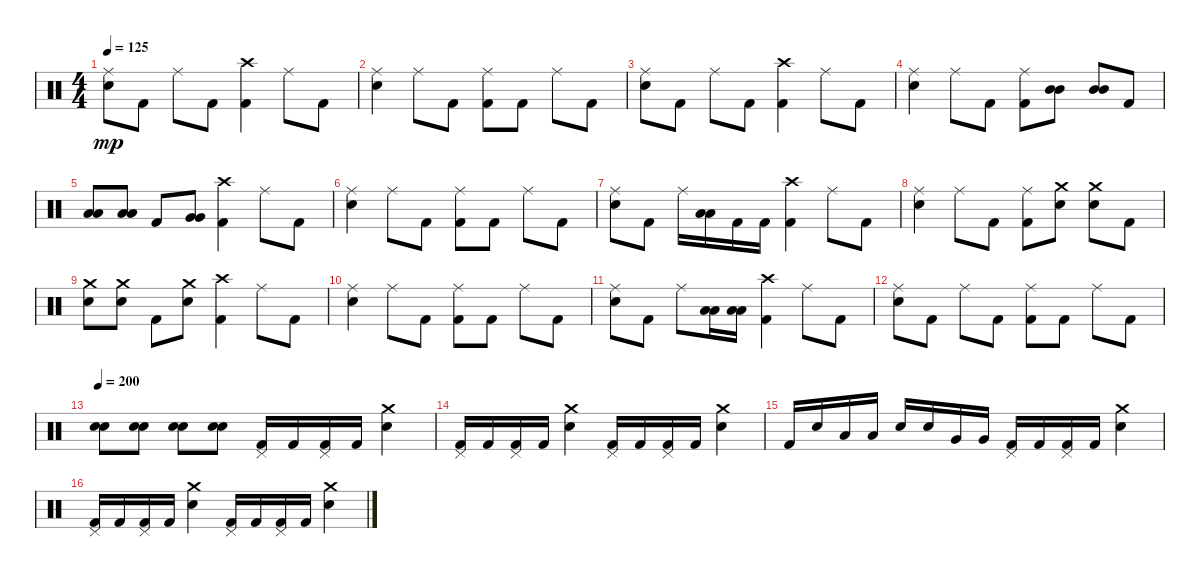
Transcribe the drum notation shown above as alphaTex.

\track "" {instrument percussion}
\staff {score}
\articulation defaults
\ts (4 4)
\tempo 125
\clef neutral
\ks c
("Electric Snare (hit)" "Ride (middle)").8{dy mp} "Kick (hit) 2".8 "Ride (middle)".8 "Kick (hit) 2".8 ("Kick (hit) 2" "Crash high (hit)").4 "Ride (middle)".8 "Kick (hit) 2".8 |
("Electric Snare (hit)" "Ride (middle)").4 "Ride (middle)".8 "Kick (hit) 2".8 ("Kick (hit) 2" "Ride (middle)").8 "Kick (hit) 2".8 "Ride (middle)".8 "Kick (hit) 2".8 |
("Electric Snare (hit)" "Ride (middle)").8 "Kick (hit) 2".8 "Ride (middle)".8 "Kick (hit) 2".8 ("Kick (hit) 2" "Crash high (hit)").4 "Ride (middle)".8 "Kick (hit) 2".8 |
("Electric Snare (hit)" "Ride (middle)").4 "Ride (middle)".8 "Kick (hit) 2".8 ("Kick (hit) 2" "Ride (middle)").8 ("Mid Tom (hit)" "Mid Tom (hit)").8 ("Mid Tom (hit)" "Mid Tom (hit)").8 "Kick (hit) 2".8 |
("Low Tom (hit)" "Low Tom (hit)").8 ("Low Tom (hit)" "Low Tom (hit)").8 "Kick (hit) 2".8 ("Very Low Tom (hit)" "Very Low Tom (hit)").8 ("Kick (hit) 2" "Crash high (hit)").4 "Ride (middle)".8 "Kick (hit) 2".8 |
("Electric Snare (hit)" "Ride (middle)").4 "Ride (middle)".8 "Kick (hit) 2".8 ("Kick (hit) 2" "Ride (middle)").8 "Kick (hit) 2".8 "Ride (middle)".8 "Kick (hit) 2".8 |
("Electric Snare (hit)" "Ride (middle)").8 "Kick (hit) 2".8 "Ride (middle)".16 ("Low Tom (hit)" "Low Tom (hit)").16 "Kick (hit) 2".16 "Kick (hit) 2".16 ("Kick (hit) 2" "Crash high (hit)").4 "Ride (middle)".8 "Kick (hit) 2".8 |
("Electric Snare (hit)" "Ride (middle)").4 "Ride (middle)".8 "Kick (hit) 2".8 ("Kick (hit) 2" "Ride (middle)").8 ("Electric Snare (hit)" "Crash medium (hit)").8 ("Electric Snare (hit)" "Crash medium (hit)").8 "Kick (hit) 2".8 |
("Electric Snare (hit)" "Crash medium (hit)").8 ("Electric Snare (hit)" "Crash medium (hit)").8 "Kick (hit) 2".8 ("Electric Snare (hit)" "Crash medium (hit)").8 ("Kick (hit) 2" "Crash high (hit)").4 "Ride (middle)".8 "Kick (hit) 2".8 |
("Electric Snare (hit)" "Ride (middle)").4 "Ride (middle)".8 "Kick (hit) 2".8 ("Kick (hit) 2" "Ride (middle)").8 "Kick (hit) 2".8 "Ride (middle)".8 "Kick (hit) 2".8 |
("Electric Snare (hit)" "Ride (middle)").8 "Kick (hit) 2".8 "Ride (middle)".8 ("Low Tom (hit)" "Low Tom (hit)").16 ("Low Tom (hit)" "Low Tom (hit)").16 ("Kick (hit) 2" "Crash high (hit)").4 "Ride (middle)".8 "Kick (hit) 2".8 |
("Electric Snare (hit)" "Ride (middle)").8 "Kick (hit) 2".8 "Ride (middle)".8 "Kick (hit) 2".8 ("Kick (hit) 2" "Ride (middle)").8 "Kick (hit) 2".8 "Ride (middle)".8 "Kick (hit) 2".8 |
\tempo 200
("Electric Snare (hit)" "Electric Snare (hit)").8 ("Electric Snare (hit)" "Electric Snare (hit)").8 ("Electric Snare (hit)" "Electric Snare (hit)").8 ("Electric Snare (hit)" "Electric Snare (hit)").8 ("Kick (hit) 2" "Pedal Hi-Hat (hit)").16 "Kick (hit) 2".16 ("Kick (hit) 2" "Pedal Hi-Hat (hit)").16 "Kick (hit) 2".16 ("Electric Snare (hit)" "Crash medium (hit)").4 |
("Kick (hit) 2" "Pedal Hi-Hat (hit)").16 "Kick (hit) 2".16 ("Kick (hit) 2" "Pedal Hi-Hat (hit)").16 "Kick (hit) 2".16 ("Electric Snare (hit)" "Crash medium (hit)").4 ("Kick (hit) 2" "Pedal Hi-Hat (hit)").16 "Kick (hit) 2".16 ("Kick (hit) 2" "Pedal Hi-Hat (hit)").16 "Kick (hit) 2".16 ("Electric Snare (hit)" "Crash medium (hit)").4 |
"Kick (hit) 2".16 "Electric Snare (hit)".16 "Low Tom (hit)".16 "Low Tom (hit)".16 "Electric Snare (hit)".16 "Electric Snare (hit)".16 "Very Low Tom (hit)".16 "Very Low Tom (hit)".16 ("Kick (hit) 2" "Pedal Hi-Hat (hit)").16 "Kick (hit) 2".16 ("Kick (hit) 2" "Pedal Hi-Hat (hit)").16 "Kick (hit) 2".16 ("Electric Snare (hit)" "Crash medium (hit)").4 |
("Kick (hit) 2" "Pedal Hi-Hat (hit)").16 "Kick (hit) 2".16 ("Kick (hit) 2" "Pedal Hi-Hat (hit)").16 "Kick (hit) 2".16 ("Electric Snare (hit)" "Crash medium (hit)").4 ("Kick (hit) 2" "Pedal Hi-Hat (hit)").16 "Kick (hit) 2".16 ("Kick (hit) 2" "Pedal Hi-Hat (hit)").16 "Kick (hit) 2".16 ("Electric Snare (hit)" "Crash medium (hit)").4
